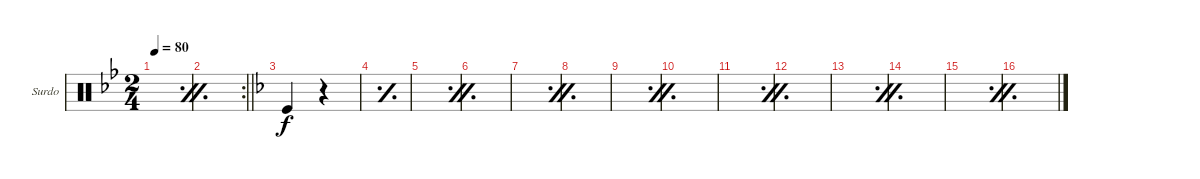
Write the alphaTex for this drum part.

\defaultSystemsLayout 4
\bracketExtendMode groupsimilarinstruments
\firstSystemTrackNameOrientation horizontal
\otherSystemsTrackNameOrientation horizontal
\track ("Surdo" "Surdo") {instrument percussion}
\staff {score}
\articulation defaults
\ts (2 4)
\tempo 80
\clef neutral
\simile firstofdouble
\scale
0.321839
\ks bb
|
\rc 2
\simile secondofdouble
\scale
0.356322
\barLineRight lightlight
|
\simile none
\scale
0.45098
\ks f "Kick (hit)".4
r.4 |
\simile simple
\scale
0.27451 |
\simile firstofdouble
\scale
0.27451 |
\simile secondofdouble
\scale
0.333333 |
\simile firstofdouble
\scale
0.333333 |
\simile secondofdouble
\scale
0.333333 |
\simile firstofdouble
\scale
0.333333 |
\simile secondofdouble
\scale
0.333333 |
\simile firstofdouble
\scale
0.333333 |
\simile secondofdouble
\scale
0.333333 |
\simile firstofdouble
\scale
0.333333 |
\simile secondofdouble
\scale
0.333333 |
\simile firstofdouble
\scale
0.333333 |
\simile secondofdouble
\scale
0.333333
